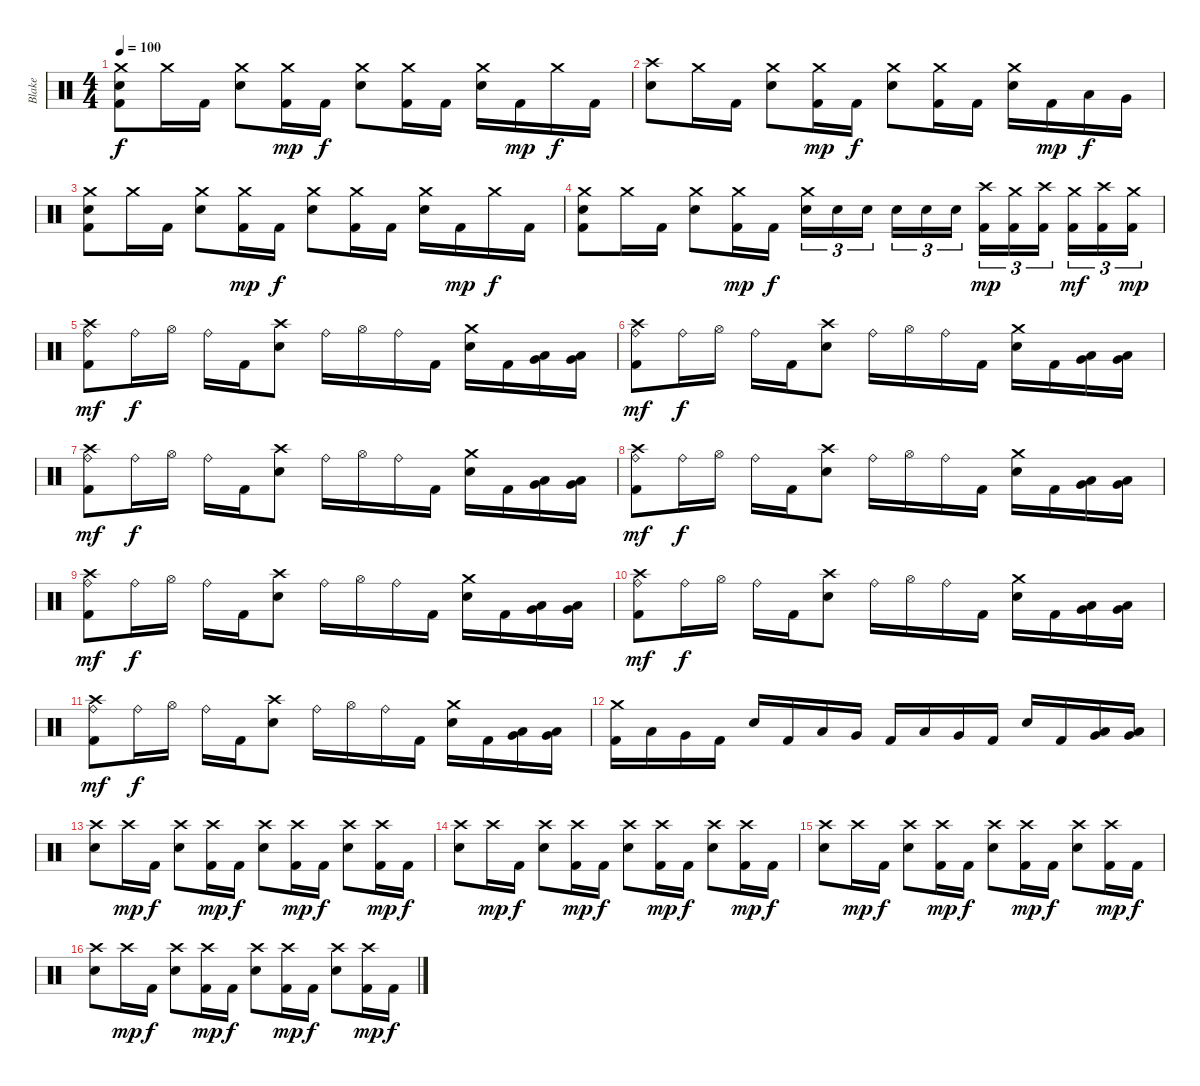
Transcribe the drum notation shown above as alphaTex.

\track ("Blake" "Blake") {instrument percussion}
\staff {score}
\articulation defaults
\ts (4 4)
\tempo 100
\clef neutral
\ks c
("Crash medium (hit)" "Snare (hit) 2" "Kick (hit) 2").8{dy f} "Crash medium (hit)".16 "Kick (hit) 2".16 ("Crash medium (hit)" "Snare (hit) 2").8 ("Crash medium (hit)" "Kick (hit) 2").16{dy mp} "Kick (hit) 2".16{dy f} ("Crash medium (hit)" "Snare (hit) 2").8 ("Crash medium (hit)" "Kick (hit) 2").16 "Kick (hit) 2".16 ("Crash medium (hit)" "Snare (hit) 2").16 "Kick (hit) 2".16{dy mp} "Crash medium (hit)".16{dy f} "Kick (hit) 2".16 |
("Crash high (hit)" "Snare (hit) 2").8 "Crash medium (hit)".16 "Kick (hit) 2".16 ("Crash medium (hit)" "Snare (hit) 2").8 ("Crash medium (hit)" "Kick (hit) 2").16{dy mp} "Kick (hit) 2".16{dy f} ("Crash medium (hit)" "Snare (hit) 2").8 ("Crash medium (hit)" "Kick (hit) 2").16 "Kick (hit) 2".16 ("Crash medium (hit)" "Snare (hit) 2").16 "Kick (hit) 2".16{dy mp} "Low Tom (hit)".16{dy f} "Very Low Tom (hit)".16 |
("Crash medium (hit)" "Snare (hit) 2" "Kick (hit) 2").8 "Crash medium (hit)".16 "Kick (hit) 2".16 ("Crash medium (hit)" "Snare (hit) 2").8 ("Crash medium (hit)" "Kick (hit) 2").16{dy mp} "Kick (hit) 2".16{dy f} ("Crash medium (hit)" "Snare (hit) 2").8 ("Crash medium (hit)" "Kick (hit) 2").16 "Kick (hit) 2".16 ("Crash medium (hit)" "Snare (hit) 2").16 "Kick (hit) 2".16{dy mp} "Crash medium (hit)".16{dy f} "Kick (hit) 2".16 |
("Crash medium (hit)" "Snare (hit) 2" "Kick (hit) 2").8 "Crash medium (hit)".16 "Kick (hit) 2".16 ("Crash medium (hit)" "Snare (hit) 2").8 ("Crash medium (hit)" "Kick (hit) 2").16{dy mp} "Kick (hit) 2".16{dy f} ("Crash medium (hit)" "Snare (hit) 2").16{tu (3 2)} "Snare (hit) 2".16{tu (3 2)} "Snare (hit) 2".16{tu (3 2) beam splitsecondary} "Snare (hit) 2".16{tu (3 2)} "Snare (hit) 2".16{tu (3 2)} "Snare (hit) 2".16{tu (3 2)} ("Crash high (hit)" "Kick (hit) 2").16{tu (3 2) dy mp} ("Crash medium (hit)" "Kick (hit) 2").16{tu (3 2)} ("Crash high (hit)" "Kick (hit) 2").16{tu (3 2) beam splitsecondary} ("Crash medium (hit)" "Kick (hit) 2").16{tu (3 2) dy mf} ("Crash high (hit)" "Kick (hit) 2").16{tu (3 2)} ("Crash medium (hit)" "Kick (hit) 2").16{tu (3 2) dy mp} |
("Crash high (hit)" "Ride (bell)" "Kick (hit) 2").8{dy mf} "Ride (bell)".16{dy f} "Hi-Hat (open)".16 "Ride (bell)".16 "Kick (hit) 2".16 ("Crash high (hit)" "Snare (hit) 2").8 "Ride (bell)".16 "Hi-Hat (open)".16 "Ride (bell)".16 "Kick (hit) 2".16 ("Crash medium (hit)" "Snare (hit) 2").16 "Kick (hit) 2".16 ("Very Low Tom (hit)" "Low Tom (hit)").16 ("Very Low Tom (hit)" "Low Tom (hit)").16 |
("Crash high (hit)" "Ride (bell)" "Kick (hit) 2").8{dy mf} "Ride (bell)".16{dy f} "Hi-Hat (open)".16 "Ride (bell)".16 "Kick (hit) 2".16 ("Crash high (hit)" "Snare (hit) 2").8 "Ride (bell)".16 "Hi-Hat (open)".16 "Ride (bell)".16 "Kick (hit) 2".16 ("Crash medium (hit)" "Snare (hit) 2").16 "Kick (hit) 2".16 ("Very Low Tom (hit)" "Low Tom (hit)").16 ("Very Low Tom (hit)" "Low Tom (hit)").16 |
("Crash high (hit)" "Ride (bell)" "Kick (hit) 2").8{dy mf} "Ride (bell)".16{dy f} "Hi-Hat (open)".16 "Ride (bell)".16 "Kick (hit) 2".16 ("Crash high (hit)" "Snare (hit) 2").8 "Ride (bell)".16 "Hi-Hat (open)".16 "Ride (bell)".16 "Kick (hit) 2".16 ("Crash medium (hit)" "Snare (hit) 2").16 "Kick (hit) 2".16 ("Very Low Tom (hit)" "Low Tom (hit)").16 ("Very Low Tom (hit)" "Low Tom (hit)").16 |
("Crash high (hit)" "Ride (bell)" "Kick (hit) 2").8{dy mf} "Ride (bell)".16{dy f} "Hi-Hat (open)".16 "Ride (bell)".16 "Kick (hit) 2".16 ("Crash high (hit)" "Snare (hit) 2").8 "Ride (bell)".16 "Hi-Hat (open)".16 "Ride (bell)".16 "Kick (hit) 2".16 ("Crash medium (hit)" "Snare (hit) 2").16 "Kick (hit) 2".16 ("Very Low Tom (hit)" "Low Tom (hit)").16 ("Very Low Tom (hit)" "Low Tom (hit)").16 |
("Crash high (hit)" "Ride (bell)" "Kick (hit) 2").8{dy mf} "Ride (bell)".16{dy f} "Hi-Hat (open)".16 "Ride (bell)".16 "Kick (hit) 2".16 ("Crash high (hit)" "Snare (hit) 2").8 "Ride (bell)".16 "Hi-Hat (open)".16 "Ride (bell)".16 "Kick (hit) 2".16 ("Crash medium (hit)" "Snare (hit) 2").16 "Kick (hit) 2".16 ("Very Low Tom (hit)" "Low Tom (hit)").16 ("Very Low Tom (hit)" "Low Tom (hit)").16 |
("Crash high (hit)" "Ride (bell)" "Kick (hit) 2").8{dy mf} "Ride (bell)".16{dy f} "Hi-Hat (open)".16 "Ride (bell)".16 "Kick (hit) 2".16 ("Crash high (hit)" "Snare (hit) 2").8 "Ride (bell)".16 "Hi-Hat (open)".16 "Ride (bell)".16 "Kick (hit) 2".16 ("Crash medium (hit)" "Snare (hit) 2").16 "Kick (hit) 2".16 ("Very Low Tom (hit)" "Low Tom (hit)").16 ("Very Low Tom (hit)" "Low Tom (hit)").16 |
("Crash high (hit)" "Ride (bell)" "Kick (hit) 2").8{dy mf} "Ride (bell)".16{dy f} "Hi-Hat (open)".16 "Ride (bell)".16 "Kick (hit) 2".16 ("Crash high (hit)" "Snare (hit) 2").8 "Ride (bell)".16 "Hi-Hat (open)".16 "Ride (bell)".16 "Kick (hit) 2".16 ("Crash medium (hit)" "Snare (hit) 2").16 "Kick (hit) 2".16 ("Very Low Tom (hit)" "Low Tom (hit)").16 ("Very Low Tom (hit)" "Low Tom (hit)").16 |
("Crash medium (hit)" "Kick (hit) 2").16 "Low Tom (hit)".16 "Very Low Tom (hit)".16 "Kick (hit) 2".16 "Snare (hit) 2".16 "Kick (hit) 2".16 "Low Tom (hit)".16 "Very Low Tom (hit)".16 "Kick (hit) 2".16 "Low Tom (hit)".16 "Very Low Tom (hit)".16 "Kick (hit) 2".16 "Snare (hit) 2".16 "Kick (hit) 2".16 ("Low Floor Tom (hit)" "Very Low Tom (hit)").16 ("Low Floor Tom (hit)" "Very Low Tom (hit)").16 |
("Crash high (hit)" "Snare (hit) 2").8 "Crash high (hit)".16{dy mp} "Kick (hit) 2".16{dy f} ("Crash high (hit)" "Snare (hit) 2").8 ("Crash high (hit)" "Kick (hit) 2").16{dy mp} "Kick (hit) 2".16{dy f} ("Crash high (hit)" "Snare (hit) 2").8 ("Crash high (hit)" "Kick (hit) 2").16{dy mp} "Kick (hit) 2".16{dy f} ("Crash high (hit)" "Snare (hit) 2").8 ("Crash high (hit)" "Kick (hit) 2").16{dy mp} "Kick (hit) 2".16{dy f} |
("Crash high (hit)" "Snare (hit) 2").8 "Crash high (hit)".16{dy mp} "Kick (hit) 2".16{dy f} ("Crash high (hit)" "Snare (hit) 2").8 ("Crash high (hit)" "Kick (hit) 2").16{dy mp} "Kick (hit) 2".16{dy f} ("Crash high (hit)" "Snare (hit) 2").8 ("Crash high (hit)" "Kick (hit) 2").16{dy mp} "Kick (hit) 2".16{dy f} ("Crash high (hit)" "Snare (hit) 2").8 ("Crash high (hit)" "Kick (hit) 2").16{dy mp} "Kick (hit) 2".16{dy f} |
("Crash high (hit)" "Snare (hit) 2").8 "Crash high (hit)".16{dy mp} "Kick (hit) 2".16{dy f} ("Crash high (hit)" "Snare (hit) 2").8 ("Crash high (hit)" "Kick (hit) 2").16{dy mp} "Kick (hit) 2".16{dy f} ("Crash high (hit)" "Snare (hit) 2").8 ("Crash high (hit)" "Kick (hit) 2").16{dy mp} "Kick (hit) 2".16{dy f} ("Crash high (hit)" "Snare (hit) 2").8 ("Crash high (hit)" "Kick (hit) 2").16{dy mp} "Kick (hit) 2".16{dy f} |
("Crash high (hit)" "Snare (hit) 2").8 "Crash high (hit)".16{dy mp} "Kick (hit) 2".16{dy f} ("Crash high (hit)" "Snare (hit) 2").8 ("Crash high (hit)" "Kick (hit) 2").16{dy mp} "Kick (hit) 2".16{dy f} ("Crash high (hit)" "Snare (hit) 2").8 ("Crash high (hit)" "Kick (hit) 2").16{dy mp} "Kick (hit) 2".16{dy f} ("Crash high (hit)" "Snare (hit) 2").8 ("Crash high (hit)" "Kick (hit) 2").16{dy mp} "Kick (hit) 2".16{dy f}
